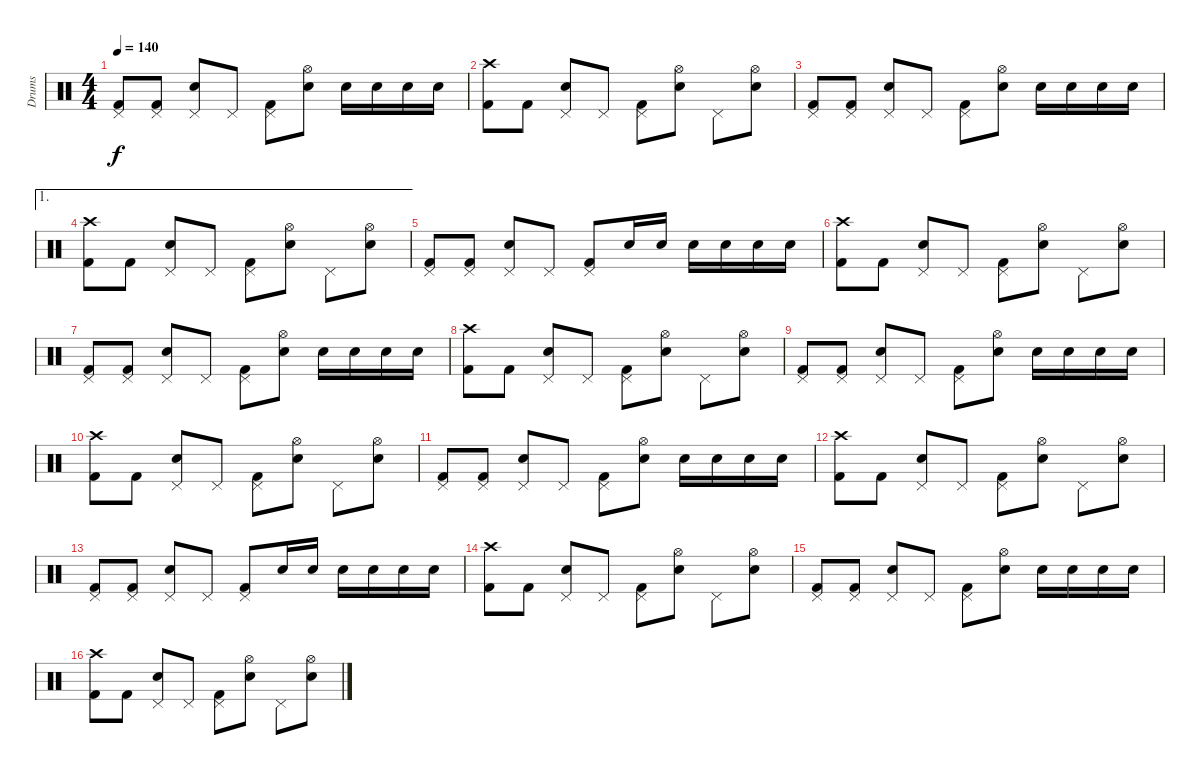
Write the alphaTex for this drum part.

\track ("Drums" "Drums") {instrument percussion}
\staff {score}
\articulation defaults
\ts (4 4)
\tempo 140
\clef neutral
\ks c
("Pedal Hi-Hat (hit)" "Kick (hit) 2").8{dy f} ("Pedal Hi-Hat (hit)" "Kick (hit) 2").8 ("Pedal Hi-Hat (hit)" "Snare (hit) 2").8 "Pedal Hi-Hat (hit)".8 ("Pedal Hi-Hat (hit)" "Kick (hit) 2").8 ("Hi-Hat (open)" "Snare (hit) 2").8 "Snare (hit) 2".16 "Snare (hit) 2".16 "Snare (hit) 2".16 "Snare (hit) 2".16 |
("Crash high (hit)" "Kick (hit) 2").8 "Kick (hit) 2".8 ("Pedal Hi-Hat (hit)" "Snare (hit) 2").8 "Pedal Hi-Hat (hit)".8 ("Pedal Hi-Hat (hit)" "Kick (hit) 2").8 ("Hi-Hat (open)" "Snare (hit) 2").8 "Pedal Hi-Hat (hit)".8 ("Hi-Hat (open)" "Snare (hit) 2").8 |
("Pedal Hi-Hat (hit)" "Kick (hit) 2").8 ("Pedal Hi-Hat (hit)" "Kick (hit) 2").8 ("Pedal Hi-Hat (hit)" "Snare (hit) 2").8 "Pedal Hi-Hat (hit)".8 ("Pedal Hi-Hat (hit)" "Kick (hit) 2").8 ("Hi-Hat (open)" "Snare (hit) 2").8 "Snare (hit) 2".16 "Snare (hit) 2".16 "Snare (hit) 2".16 "Snare (hit) 2".16 |
\ae 1
("Crash high (hit)" "Kick (hit) 2").8 "Kick (hit) 2".8 ("Pedal Hi-Hat (hit)" "Snare (hit) 2").8 "Pedal Hi-Hat (hit)".8 ("Pedal Hi-Hat (hit)" "Kick (hit) 2").8 ("Hi-Hat (open)" "Snare (hit) 2").8 "Pedal Hi-Hat (hit)".8 ("Hi-Hat (open)" "Snare (hit) 2").8 |
("Pedal Hi-Hat (hit)" "Kick (hit) 2").8 ("Pedal Hi-Hat (hit)" "Kick (hit) 2").8 ("Pedal Hi-Hat (hit)" "Snare (hit) 2").8 "Pedal Hi-Hat (hit)".8 ("Pedal Hi-Hat (hit)" "Kick (hit) 2").8 "Snare (hit) 2".16 "Snare (hit) 2".16 "Snare (hit) 2".16 "Snare (hit) 2".16 "Snare (hit) 2".16 "Snare (hit) 2".16 |
("Crash high (hit)" "Kick (hit) 2").8 "Kick (hit) 2".8 ("Pedal Hi-Hat (hit)" "Snare (hit) 2").8 "Pedal Hi-Hat (hit)".8 ("Pedal Hi-Hat (hit)" "Kick (hit) 2").8 ("Hi-Hat (open)" "Snare (hit) 2").8 "Pedal Hi-Hat (hit)".8 ("Hi-Hat (open)" "Snare (hit) 2").8 |
("Pedal Hi-Hat (hit)" "Kick (hit) 2").8 ("Pedal Hi-Hat (hit)" "Kick (hit) 2").8 ("Pedal Hi-Hat (hit)" "Snare (hit) 2").8 "Pedal Hi-Hat (hit)".8 ("Pedal Hi-Hat (hit)" "Kick (hit) 2").8 ("Hi-Hat (open)" "Snare (hit) 2").8 "Snare (hit) 2".16 "Snare (hit) 2".16 "Snare (hit) 2".16 "Snare (hit) 2".16 |
("Crash high (hit)" "Kick (hit) 2").8 "Kick (hit) 2".8 ("Pedal Hi-Hat (hit)" "Snare (hit) 2").8 "Pedal Hi-Hat (hit)".8 ("Pedal Hi-Hat (hit)" "Kick (hit) 2").8 ("Hi-Hat (open)" "Snare (hit) 2").8 "Pedal Hi-Hat (hit)".8 ("Hi-Hat (open)" "Snare (hit) 2").8 |
("Pedal Hi-Hat (hit)" "Kick (hit) 2").8 ("Pedal Hi-Hat (hit)" "Kick (hit) 2").8 ("Pedal Hi-Hat (hit)" "Snare (hit) 2").8 "Pedal Hi-Hat (hit)".8 ("Pedal Hi-Hat (hit)" "Kick (hit) 2").8 ("Hi-Hat (open)" "Snare (hit) 2").8 "Snare (hit) 2".16 "Snare (hit) 2".16 "Snare (hit) 2".16 "Snare (hit) 2".16 |
("Crash high (hit)" "Kick (hit) 2").8 "Kick (hit) 2".8 ("Pedal Hi-Hat (hit)" "Snare (hit) 2").8 "Pedal Hi-Hat (hit)".8 ("Pedal Hi-Hat (hit)" "Kick (hit) 2").8 ("Hi-Hat (open)" "Snare (hit) 2").8 "Pedal Hi-Hat (hit)".8 ("Hi-Hat (open)" "Snare (hit) 2").8 |
("Pedal Hi-Hat (hit)" "Kick (hit) 2").8 ("Pedal Hi-Hat (hit)" "Kick (hit) 2").8 ("Pedal Hi-Hat (hit)" "Snare (hit) 2").8 "Pedal Hi-Hat (hit)".8 ("Pedal Hi-Hat (hit)" "Kick (hit) 2").8 ("Hi-Hat (open)" "Snare (hit) 2").8 "Snare (hit) 2".16 "Snare (hit) 2".16 "Snare (hit) 2".16 "Snare (hit) 2".16 |
("Crash high (hit)" "Kick (hit) 2").8 "Kick (hit) 2".8 ("Pedal Hi-Hat (hit)" "Snare (hit) 2").8 "Pedal Hi-Hat (hit)".8 ("Pedal Hi-Hat (hit)" "Kick (hit) 2").8 ("Hi-Hat (open)" "Snare (hit) 2").8 "Pedal Hi-Hat (hit)".8 ("Hi-Hat (open)" "Snare (hit) 2").8 |
("Pedal Hi-Hat (hit)" "Kick (hit) 2").8 ("Pedal Hi-Hat (hit)" "Kick (hit) 2").8 ("Pedal Hi-Hat (hit)" "Snare (hit) 2").8 "Pedal Hi-Hat (hit)".8 ("Pedal Hi-Hat (hit)" "Kick (hit) 2").8 "Snare (hit) 2".16 "Snare (hit) 2".16 "Snare (hit) 2".16 "Snare (hit) 2".16 "Snare (hit) 2".16 "Snare (hit) 2".16 |
("Crash high (hit)" "Kick (hit) 2").8 "Kick (hit) 2".8 ("Pedal Hi-Hat (hit)" "Snare (hit) 2").8 "Pedal Hi-Hat (hit)".8 ("Pedal Hi-Hat (hit)" "Kick (hit) 2").8 ("Hi-Hat (open)" "Snare (hit) 2").8 "Pedal Hi-Hat (hit)".8 ("Hi-Hat (open)" "Snare (hit) 2").8 |
("Pedal Hi-Hat (hit)" "Kick (hit) 2").8 ("Pedal Hi-Hat (hit)" "Kick (hit) 2").8 ("Pedal Hi-Hat (hit)" "Snare (hit) 2").8 "Pedal Hi-Hat (hit)".8 ("Pedal Hi-Hat (hit)" "Kick (hit) 2").8 ("Hi-Hat (open)" "Snare (hit) 2").8 "Snare (hit) 2".16 "Snare (hit) 2".16 "Snare (hit) 2".16 "Snare (hit) 2".16 |
("Crash high (hit)" "Kick (hit) 2").8 "Kick (hit) 2".8 ("Pedal Hi-Hat (hit)" "Snare (hit) 2").8 "Pedal Hi-Hat (hit)".8 ("Pedal Hi-Hat (hit)" "Kick (hit) 2").8 ("Hi-Hat (open)" "Snare (hit) 2").8 "Pedal Hi-Hat (hit)".8 ("Hi-Hat (open)" "Snare (hit) 2").8
